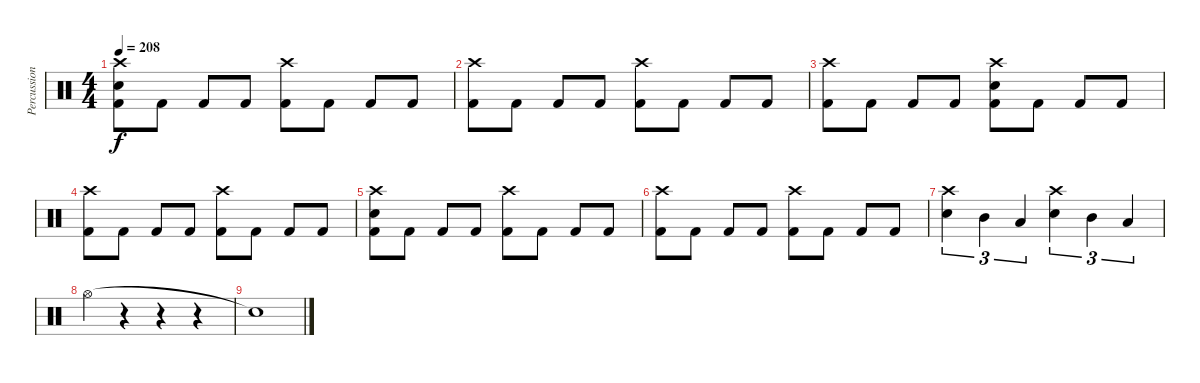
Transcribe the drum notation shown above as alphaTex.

\track ("Percussion" "Percussion") {instrument percussion}
\staff {score}
\articulation defaults
\ts (4 4)
\tempo 208
\clef neutral
\ks c
("Crash high (hit)" "Electric Snare (hit)" "Kick (hit) 2").8{dy f} "Kick (hit) 2".8 "Kick (hit) 2".8 "Kick (hit) 2".8 ("Crash high (hit)" "Kick (hit) 2").8 "Kick (hit) 2".8 "Kick (hit) 2".8 "Kick (hit) 2".8 |
("Crash high (hit)" "Kick (hit) 2").8 "Kick (hit) 2".8 "Kick (hit) 2".8 "Kick (hit) 2".8 ("Crash high (hit)" "Kick (hit) 2").8 "Kick (hit) 2".8 "Kick (hit) 2".8 "Kick (hit) 2".8 |
("Crash high (hit)" "Kick (hit) 2").8 "Kick (hit) 2".8 "Kick (hit) 2".8 "Kick (hit) 2".8 ("Crash high (hit)" "Electric Snare (hit)" "Kick (hit) 2").8 "Kick (hit) 2".8 "Kick (hit) 2".8 "Kick (hit) 2".8 |
("Crash high (hit)" "Kick (hit) 2").8 "Kick (hit) 2".8 "Kick (hit) 2".8 "Kick (hit) 2".8 ("Crash high (hit)" "Kick (hit) 2").8 "Kick (hit) 2".8 "Kick (hit) 2".8 "Kick (hit) 2".8 |
("Crash high (hit)" "Electric Snare (hit)" "Kick (hit) 2").8 "Kick (hit) 2".8 "Kick (hit) 2".8 "Kick (hit) 2".8 ("Crash high (hit)" "Kick (hit) 2").8 "Kick (hit) 2".8 "Kick (hit) 2".8 "Kick (hit) 2".8 |
("Crash high (hit)" "Kick (hit) 2").8 "Kick (hit) 2".8 "Kick (hit) 2".8 "Kick (hit) 2".8 ("Crash high (hit)" "Kick (hit) 2").8 "Kick (hit) 2".8 "Kick (hit) 2".8 "Kick (hit) 2".8 |
("Crash high (hit)" "Electric Snare (hit)").4{tu (3 2)} "Mid Tom (hit)".4{tu (3 2)} "Low Tom (hit)".4{tu (3 2)} ("Crash high (hit)" "Electric Snare (hit)").4{tu (3 2)} "Mid Tom (hit)".4{tu (3 2)} "Low Tom (hit)".4{tu (3 2)} |
"Hi-Hat (open)".4 r.4 r.4 r.4 |
"Snare (hit)"{t}.1
